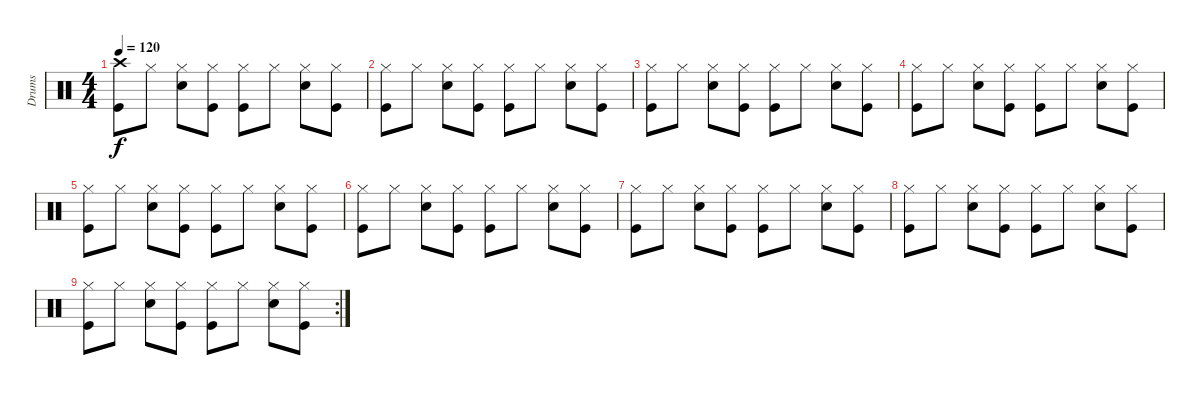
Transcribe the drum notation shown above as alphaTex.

\track ("Drums" "Drums") {instrument percussion}
\staff {score}
\articulation defaults
\ts (4 4)
\tempo 120
\clef neutral
\ks c
("Crash high (hit)" "Kick (hit)").8{dy f} "Hi-Hat (closed)".8 ("Hi-Hat (closed)" "Electric Snare (hit)").8 ("Hi-Hat (closed)" "Kick (hit)").8 ("Hi-Hat (closed)" "Kick (hit)").8 "Hi-Hat (closed)".8 ("Hi-Hat (closed)" "Electric Snare (hit)").8 ("Hi-Hat (closed)" "Kick (hit)").8 |
("Hi-Hat (closed)" "Kick (hit)").8 "Hi-Hat (closed)".8 ("Hi-Hat (closed)" "Electric Snare (hit)").8 ("Hi-Hat (closed)" "Kick (hit)").8 ("Hi-Hat (closed)" "Kick (hit)").8 "Hi-Hat (closed)".8 ("Hi-Hat (closed)" "Electric Snare (hit)").8 ("Hi-Hat (closed)" "Kick (hit)").8 |
("Hi-Hat (closed)" "Kick (hit)").8 "Hi-Hat (closed)".8 ("Hi-Hat (closed)" "Electric Snare (hit)").8 ("Hi-Hat (closed)" "Kick (hit)").8 ("Hi-Hat (closed)" "Kick (hit)").8 "Hi-Hat (closed)".8 ("Hi-Hat (closed)" "Electric Snare (hit)").8 ("Hi-Hat (closed)" "Kick (hit)").8 |
("Hi-Hat (closed)" "Kick (hit)").8 "Hi-Hat (closed)".8 ("Hi-Hat (closed)" "Electric Snare (hit)").8 ("Hi-Hat (closed)" "Kick (hit)").8 ("Hi-Hat (closed)" "Kick (hit)").8 "Hi-Hat (closed)".8 ("Hi-Hat (closed)" "Electric Snare (hit)").8 ("Hi-Hat (closed)" "Kick (hit)").8 |
("Hi-Hat (closed)" "Kick (hit)").8 "Hi-Hat (closed)".8 ("Hi-Hat (closed)" "Electric Snare (hit)").8 ("Hi-Hat (closed)" "Kick (hit)").8 ("Hi-Hat (closed)" "Kick (hit)").8 "Hi-Hat (closed)".8 ("Hi-Hat (closed)" "Electric Snare (hit)").8 ("Hi-Hat (closed)" "Kick (hit)").8 |
("Hi-Hat (closed)" "Kick (hit)").8 "Hi-Hat (closed)".8 ("Hi-Hat (closed)" "Electric Snare (hit)").8 ("Hi-Hat (closed)" "Kick (hit)").8 ("Hi-Hat (closed)" "Kick (hit)").8 "Hi-Hat (closed)".8 ("Hi-Hat (closed)" "Electric Snare (hit)").8 ("Hi-Hat (closed)" "Kick (hit)").8 |
("Hi-Hat (closed)" "Kick (hit)").8 "Hi-Hat (closed)".8 ("Hi-Hat (closed)" "Electric Snare (hit)").8 ("Hi-Hat (closed)" "Kick (hit)").8 ("Hi-Hat (closed)" "Kick (hit)").8 "Hi-Hat (closed)".8 ("Hi-Hat (closed)" "Electric Snare (hit)").8 ("Hi-Hat (closed)" "Kick (hit)").8 |
("Hi-Hat (closed)" "Kick (hit)").8 "Hi-Hat (closed)".8 ("Hi-Hat (closed)" "Electric Snare (hit)").8 ("Hi-Hat (closed)" "Kick (hit)").8 ("Hi-Hat (closed)" "Kick (hit)").8 "Hi-Hat (closed)".8 ("Hi-Hat (closed)" "Electric Snare (hit)").8 ("Hi-Hat (closed)" "Kick (hit)").8 |
\rc 2
("Hi-Hat (closed)" "Kick (hit)").8 "Hi-Hat (closed)".8 ("Hi-Hat (closed)" "Electric Snare (hit)").8 ("Hi-Hat (closed)" "Kick (hit)").8 ("Hi-Hat (closed)" "Kick (hit)").8 "Hi-Hat (closed)".8 ("Hi-Hat (closed)" "Electric Snare (hit)").8 ("Hi-Hat (closed)" "Kick (hit)").8
